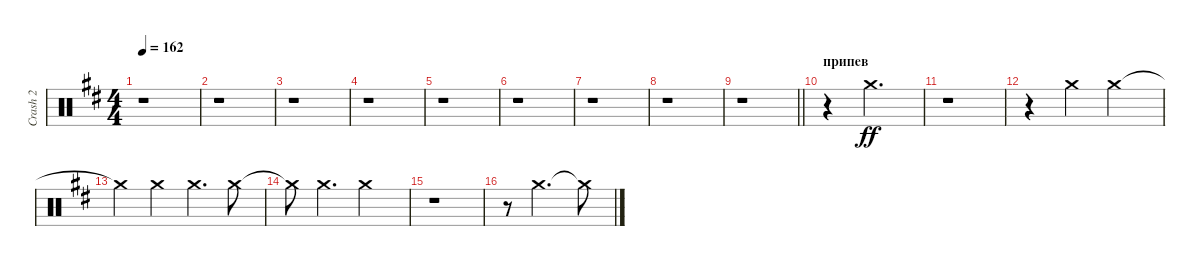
\track ("Сrash 2" "Сrash 2") {instrument percussion}
\staff {score}
\articulation defaults
\ts (4 4)
\tempo 162
\clef neutral
\ks bminor
r.1{dy ff} |
r.1 |
r.1 |
r.1 |
r.1 |
r.1 |
r.1 |
r.1 |
\barLineRight lightlight
r.1 |
\section ("" "припев")
r.4 "Crash medium (hit)".2{d} |
r.1 |
r.4 "Crash medium (hit)".4 "Crash medium (hit)".2 |
"Crash medium (hit)"{t}.4 "Crash medium (hit)".4 "Crash medium (hit)".4{d} "Crash medium (hit)".8 |
"Crash medium (hit)"{t}.8 "Crash medium (hit)".4{d} "Crash medium (hit)".2 |
r.1 |
r.8 "Crash medium (hit)".2{d} "Crash medium (hit)"{t}.8
